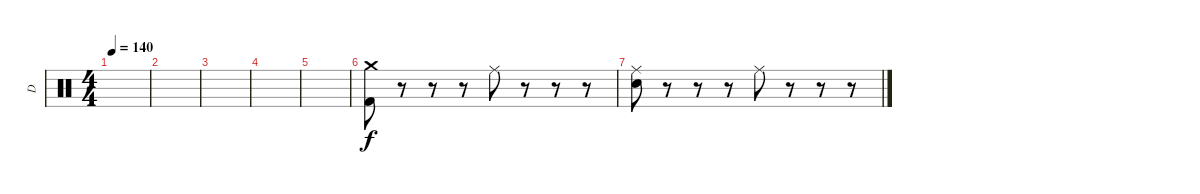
\track ("D" "D") {instrument percussion}
\staff {score}
\articulation defaults
\ts (4 4)
\tempo 140
\clef neutral
\ks c
|
|
|
|
|
("Crash medium (hit)" "Kick (hit) 2").8 r.8 r.8 r.8 "Ride (middle)".8 r.8 r.8 r.8 |
("Ride (middle)" "Electric Snare (hit)").8 r.8 r.8 r.8 "Ride (middle)".8 r.8 r.8 r.8
